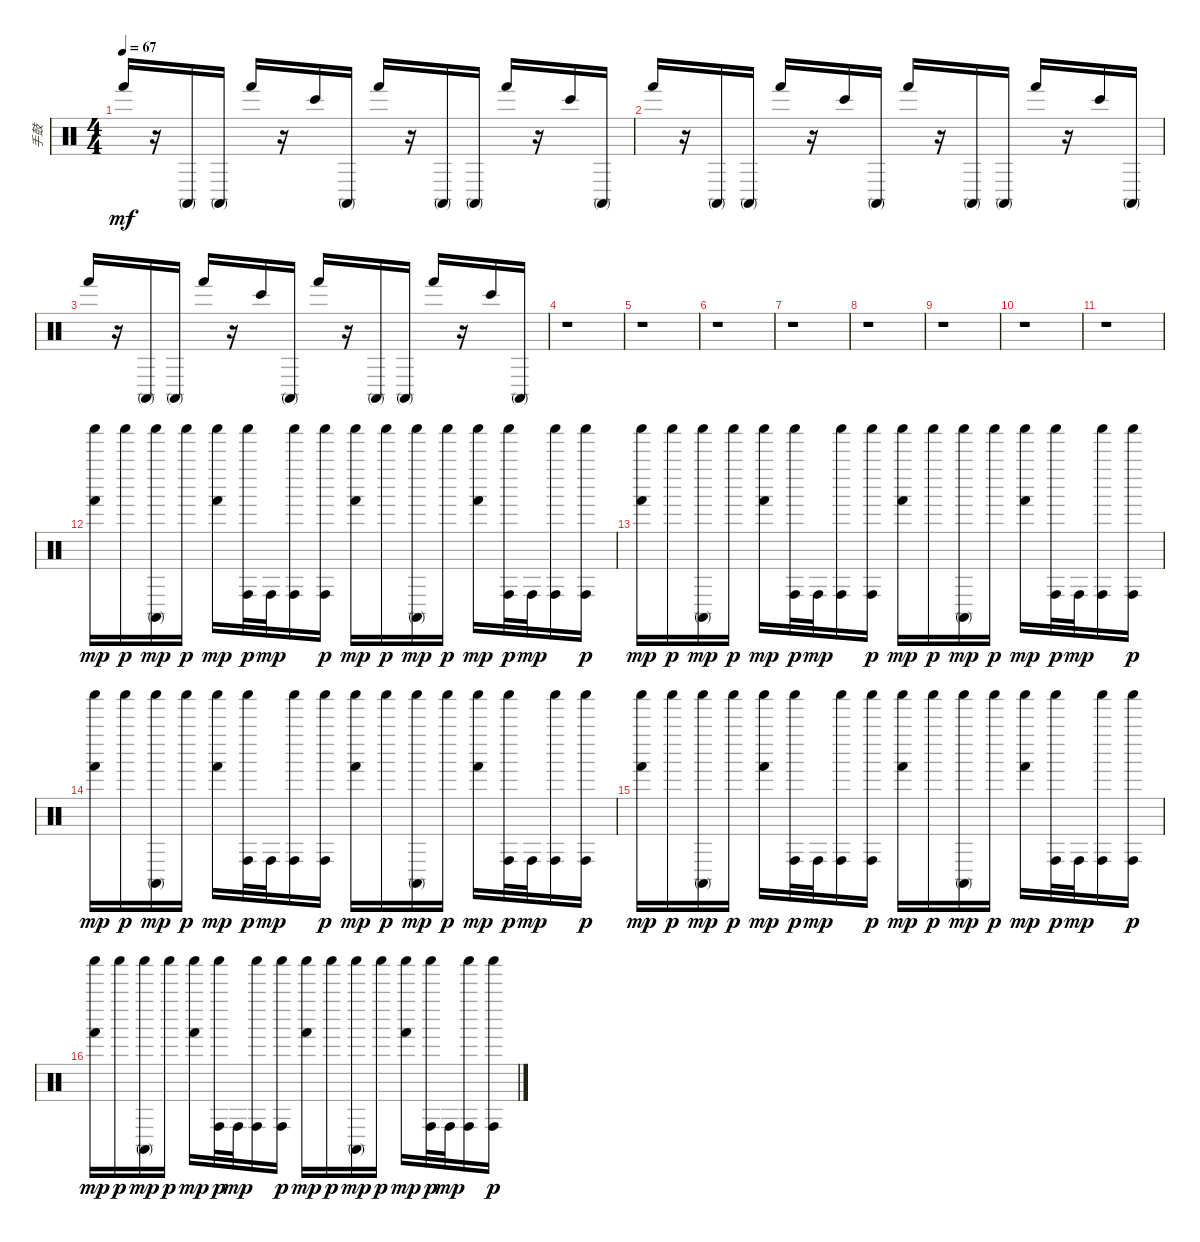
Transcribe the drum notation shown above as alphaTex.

\track ("手鼓" "手鼓") {instrument percussion}
\staff {score}
\articulation defaults
\ts (4 4)
\tempo 67
\clef neutral
\ks c "Hand (hit)".16{dy mf}
r.16 "Conga high (mute)".16 "Conga high (mute)".16 "Hand (hit)".16 r.16 "Bongo High (hit)".16 "Conga high (mute)".16 "Hand (hit)".16 r.16 "Conga high (mute)".16 "Conga high (mute)".16 "Hand (hit)".16 r.16 "Bongo High (hit)".16 "Conga high (mute)".16 |
"Hand (hit)".16 r.16 "Conga high (mute)".16 "Conga high (mute)".16 "Hand (hit)".16 r.16 "Bongo High (hit)".16 "Conga high (mute)".16 "Hand (hit)".16 r.16 "Conga high (mute)".16 "Conga high (mute)".16 "Hand (hit)".16 r.16 "Bongo High (hit)".16 "Conga high (mute)".16 |
"Hand (hit)".16 r.16 "Conga high (mute)".16 "Conga high (mute)".16 "Hand (hit)".16 r.16 "Bongo High (hit)".16 "Conga high (mute)".16 "Hand (hit)".16 r.16 "Conga high (mute)".16 "Conga high (mute)".16 "Hand (hit)".16 r.16 "Bongo High (hit)".16 "Conga high (mute)".16 |
r.1 |
r.1 |
r.1 |
r.1 |
r.1 |
r.1 |
r.1 |
r.1 |
("Hand (hit)" "Shaker (hit)").16{dy mp} "Shaker (hit)".16{dy p} ("Conga high (mute)" "Shaker (hit)").16{dy mp} "Shaker (hit)".16{dy p} ("Hand (hit)" "Shaker (hit)").16{dy mp} ("Conga high (hit)" "Shaker (hit)").32{dy p} "Conga high (hit)".32{dy mp} ("Conga high (hit)" "Shaker (hit)").16 ("Conga high (hit)" "Shaker (hit)").16{dy p} ("Hand (hit)" "Shaker (hit)").16{dy mp} "Shaker (hit)".16{dy p} ("Conga high (mute)" "Shaker (hit)").16{dy mp} "Shaker (hit)".16{dy p} ("Hand (hit)" "Shaker (hit)").16{dy mp} ("Conga high (hit)" "Shaker (hit)").32{dy p} "Conga high (hit)".32{dy mp} ("Conga high (hit)" "Shaker (hit)").16 ("Conga high (hit)" "Shaker (hit)").16{dy p} |
("Hand (hit)" "Shaker (hit)").16{dy mp} "Shaker (hit)".16{dy p} ("Conga high (mute)" "Shaker (hit)").16{dy mp} "Shaker (hit)".16{dy p} ("Hand (hit)" "Shaker (hit)").16{dy mp} ("Conga high (hit)" "Shaker (hit)").32{dy p} "Conga high (hit)".32{dy mp} ("Conga high (hit)" "Shaker (hit)").16 ("Conga high (hit)" "Shaker (hit)").16{dy p} ("Hand (hit)" "Shaker (hit)").16{dy mp} "Shaker (hit)".16{dy p} ("Conga high (mute)" "Shaker (hit)").16{dy mp} "Shaker (hit)".16{dy p} ("Hand (hit)" "Shaker (hit)").16{dy mp} ("Conga high (hit)" "Shaker (hit)").32{dy p} "Conga high (hit)".32{dy mp} ("Conga high (hit)" "Shaker (hit)").16 ("Conga high (hit)" "Shaker (hit)").16{dy p} |
("Hand (hit)" "Shaker (hit)").16{dy mp} "Shaker (hit)".16{dy p} ("Conga high (mute)" "Shaker (hit)").16{dy mp} "Shaker (hit)".16{dy p} ("Hand (hit)" "Shaker (hit)").16{dy mp} ("Conga high (hit)" "Shaker (hit)").32{dy p} "Conga high (hit)".32{dy mp} ("Conga high (hit)" "Shaker (hit)").16 ("Conga high (hit)" "Shaker (hit)").16{dy p} ("Hand (hit)" "Shaker (hit)").16{dy mp} "Shaker (hit)".16{dy p} ("Conga high (mute)" "Shaker (hit)").16{dy mp} "Shaker (hit)".16{dy p} ("Hand (hit)" "Shaker (hit)").16{dy mp} ("Conga high (hit)" "Shaker (hit)").32{dy p} "Conga high (hit)".32{dy mp} ("Conga high (hit)" "Shaker (hit)").16 ("Conga high (hit)" "Shaker (hit)").16{dy p} |
("Hand (hit)" "Shaker (hit)").16{dy mp} "Shaker (hit)".16{dy p} ("Conga high (mute)" "Shaker (hit)").16{dy mp} "Shaker (hit)".16{dy p} ("Hand (hit)" "Shaker (hit)").16{dy mp} ("Conga high (hit)" "Shaker (hit)").32{dy p} "Conga high (hit)".32{dy mp} ("Conga high (hit)" "Shaker (hit)").16 ("Conga high (hit)" "Shaker (hit)").16{dy p} ("Hand (hit)" "Shaker (hit)").16{dy mp} "Shaker (hit)".16{dy p} ("Conga high (mute)" "Shaker (hit)").16{dy mp} "Shaker (hit)".16{dy p} ("Hand (hit)" "Shaker (hit)").16{dy mp} ("Conga high (hit)" "Shaker (hit)").32{dy p} "Conga high (hit)".32{dy mp} ("Conga high (hit)" "Shaker (hit)").16 ("Conga high (hit)" "Shaker (hit)").16{dy p} |
("Hand (hit)" "Shaker (hit)").16{dy mp} "Shaker (hit)".16{dy p} ("Conga high (mute)" "Shaker (hit)").16{dy mp} "Shaker (hit)".16{dy p} ("Hand (hit)" "Shaker (hit)").16{dy mp} ("Conga high (hit)" "Shaker (hit)").32{dy p} "Conga high (hit)".32{dy mp} ("Conga high (hit)" "Shaker (hit)").16 ("Conga high (hit)" "Shaker (hit)").16{dy p} ("Hand (hit)" "Shaker (hit)").16{dy mp} "Shaker (hit)".16{dy p} ("Conga high (mute)" "Shaker (hit)").16{dy mp} "Shaker (hit)".16{dy p} ("Hand (hit)" "Shaker (hit)").16{dy mp} ("Conga high (hit)" "Shaker (hit)").32{dy p} "Conga high (hit)".32{dy mp} ("Conga high (hit)" "Shaker (hit)").16 ("Conga high (hit)" "Shaker (hit)").16{dy p}
